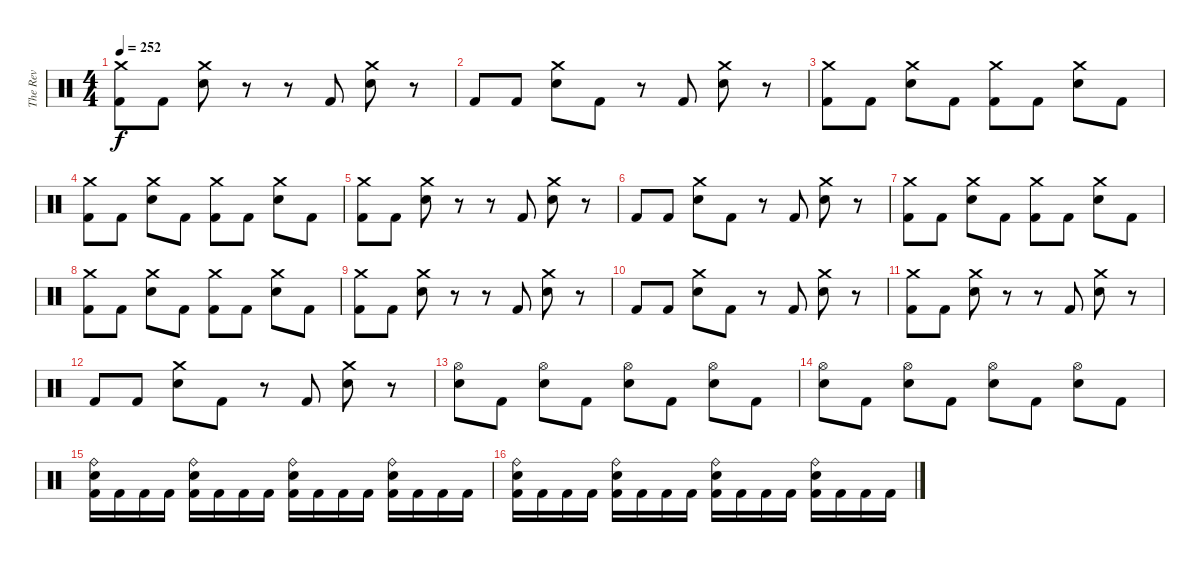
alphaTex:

\track ("The Rev" "The Rev") {instrument percussion}
\staff {score}
\articulation defaults
\ts (4 4)
\tempo 252
\clef neutral
\ks c
("Crash medium (hit)" "Kick (hit) 2").8{dy f} "Kick (hit) 2".8 ("Crash medium (hit)" "Electric Snare (hit)").8 r.8 r.8 "Kick (hit) 2".8 ("Crash medium (hit)" "Electric Snare (hit)").8 r.8 |
"Kick (hit) 2".8 "Kick (hit) 2".8 ("Crash medium (hit)" "Electric Snare (hit)").8 "Kick (hit) 2".8 r.8 "Kick (hit) 2".8 ("Crash medium (hit)" "Electric Snare (hit)").8 r.8 |
("Crash medium (hit)" "Kick (hit) 2").8 "Kick (hit) 2".8 ("Crash medium (hit)" "Electric Snare (hit)").8 "Kick (hit) 2".8 ("Crash medium (hit)" "Kick (hit) 2").8 "Kick (hit) 2".8 ("Crash medium (hit)" "Electric Snare (hit)").8 "Kick (hit) 2".8 |
("Crash medium (hit)" "Kick (hit) 2").8 "Kick (hit) 2".8 ("Crash medium (hit)" "Electric Snare (hit)").8 "Kick (hit) 2".8 ("Crash medium (hit)" "Kick (hit) 2").8 "Kick (hit) 2".8 ("Crash medium (hit)" "Electric Snare (hit)").8 "Kick (hit) 2".8 |
("Crash medium (hit)" "Kick (hit) 2").8 "Kick (hit) 2".8 ("Crash medium (hit)" "Electric Snare (hit)").8 r.8 r.8 "Kick (hit) 2".8 ("Crash medium (hit)" "Electric Snare (hit)").8 r.8 |
"Kick (hit) 2".8 "Kick (hit) 2".8 ("Crash medium (hit)" "Electric Snare (hit)").8 "Kick (hit) 2".8 r.8 "Kick (hit) 2".8 ("Crash medium (hit)" "Electric Snare (hit)").8 r.8 |
("Crash medium (hit)" "Kick (hit) 2").8 "Kick (hit) 2".8 ("Crash medium (hit)" "Electric Snare (hit)").8 "Kick (hit) 2".8 ("Crash medium (hit)" "Kick (hit) 2").8 "Kick (hit) 2".8 ("Crash medium (hit)" "Electric Snare (hit)").8 "Kick (hit) 2".8 |
("Crash medium (hit)" "Kick (hit) 2").8 "Kick (hit) 2".8 ("Crash medium (hit)" "Electric Snare (hit)").8 "Kick (hit) 2".8 ("Crash medium (hit)" "Kick (hit) 2").8 "Kick (hit) 2".8 ("Crash medium (hit)" "Electric Snare (hit)").8 "Kick (hit) 2".8 |
("Crash medium (hit)" "Kick (hit) 2").8 "Kick (hit) 2".8 ("Crash medium (hit)" "Electric Snare (hit)").8 r.8 r.8 "Kick (hit) 2".8 ("Crash medium (hit)" "Electric Snare (hit)").8 r.8 |
"Kick (hit) 2".8 "Kick (hit) 2".8 ("Crash medium (hit)" "Electric Snare (hit)").8 "Kick (hit) 2".8 r.8 "Kick (hit) 2".8 ("Crash medium (hit)" "Electric Snare (hit)").8 r.8 |
("Crash medium (hit)" "Kick (hit) 2").8 "Kick (hit) 2".8 ("Crash medium (hit)" "Electric Snare (hit)").8 r.8 r.8 "Kick (hit) 2".8 ("Crash medium (hit)" "Electric Snare (hit)").8 r.8 |
"Kick (hit) 2".8 "Kick (hit) 2".8 ("Crash medium (hit)" "Electric Snare (hit)").8 "Kick (hit) 2".8 r.8 "Kick (hit) 2".8 ("Crash medium (hit)" "Electric Snare (hit)").8 r.8 |
("Hi-Hat (open)" "Electric Snare (hit)").8 "Kick (hit) 2".8 ("Hi-Hat (open)" "Electric Snare (hit)").8 "Kick (hit) 2".8 ("Hi-Hat (open)" "Electric Snare (hit)").8 "Kick (hit) 2".8 ("Hi-Hat (open)" "Electric Snare (hit)").8 "Kick (hit) 2".8 |
("Hi-Hat (open)" "Electric Snare (hit)").8 "Kick (hit) 2".8 ("Hi-Hat (open)" "Electric Snare (hit)").8 "Kick (hit) 2".8 ("Hi-Hat (open)" "Electric Snare (hit)").8 "Kick (hit) 2".8 ("Hi-Hat (open)" "Electric Snare (hit)").8 "Kick (hit) 2".8 |
("Ride (bell)" "Electric Snare (hit)" "Kick (hit) 2").16 "Kick (hit) 2".16 "Kick (hit) 2".16 "Kick (hit) 2".16 ("Ride (bell)" "Electric Snare (hit)" "Kick (hit) 2").16 "Kick (hit) 2".16 "Kick (hit) 2".16 "Kick (hit) 2".16 ("Ride (bell)" "Electric Snare (hit)" "Kick (hit) 2").16 "Kick (hit) 2".16 "Kick (hit) 2".16 "Kick (hit) 2".16 ("Ride (bell)" "Electric Snare (hit)" "Kick (hit) 2").16 "Kick (hit) 2".16 "Kick (hit) 2".16 "Kick (hit) 2".16 |
("Ride (bell)" "Electric Snare (hit)" "Kick (hit) 2").16 "Kick (hit) 2".16 "Kick (hit) 2".16 "Kick (hit) 2".16 ("Ride (bell)" "Electric Snare (hit)" "Kick (hit) 2").16 "Kick (hit) 2".16 "Kick (hit) 2".16 "Kick (hit) 2".16 ("Ride (bell)" "Electric Snare (hit)" "Kick (hit) 2").16 "Kick (hit) 2".16 "Kick (hit) 2".16 "Kick (hit) 2".16 ("Ride (bell)" "Electric Snare (hit)" "Kick (hit) 2").16 "Kick (hit) 2".16 "Kick (hit) 2".16 "Kick (hit) 2".16
